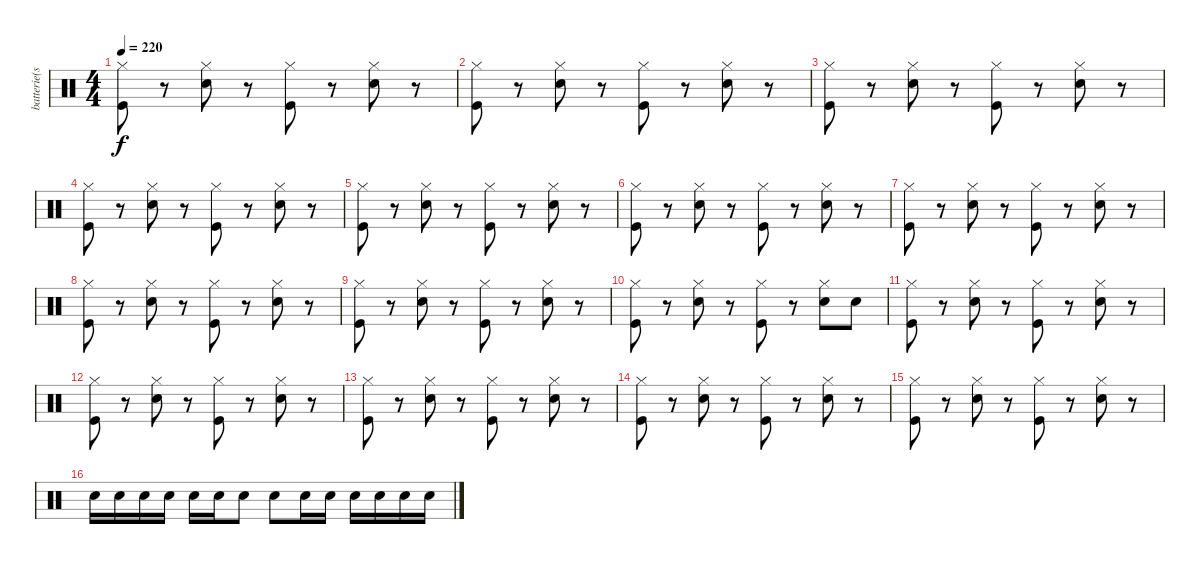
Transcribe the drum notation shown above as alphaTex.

\track ("batterie(scott)" "batterie(s") {instrument percussion}
\staff {score}
\articulation defaults
\ts (4 4)
\tempo 220
\clef neutral
\ks c
("Hi-Hat (closed)" "Kick (hit)").8{dy f} r.8 ("Hi-Hat (closed)" "Snare (hit) 2").8 r.8 ("Hi-Hat (closed)" "Kick (hit)").8 r.8 ("Hi-Hat (closed)" "Snare (hit) 2").8 r.8 |
("Hi-Hat (closed)" "Kick (hit)").8 r.8 ("Hi-Hat (closed)" "Snare (hit) 2").8 r.8 ("Hi-Hat (closed)" "Kick (hit)").8 r.8 ("Hi-Hat (closed)" "Snare (hit) 2").8 r.8 |
("Hi-Hat (closed)" "Kick (hit)").8 r.8 ("Hi-Hat (closed)" "Snare (hit) 2").8 r.8 ("Hi-Hat (closed)" "Kick (hit)").8 r.8 ("Hi-Hat (closed)" "Snare (hit) 2").8 r.8 |
("Hi-Hat (closed)" "Kick (hit)").8 r.8 ("Hi-Hat (closed)" "Snare (hit) 2").8 r.8 ("Hi-Hat (closed)" "Kick (hit)").8 r.8 ("Hi-Hat (closed)" "Snare (hit) 2").8 r.8 |
("Hi-Hat (closed)" "Kick (hit)").8 r.8 ("Hi-Hat (closed)" "Snare (hit) 2").8 r.8 ("Hi-Hat (closed)" "Kick (hit)").8 r.8 ("Hi-Hat (closed)" "Snare (hit) 2").8 r.8 |
("Hi-Hat (closed)" "Kick (hit)").8 r.8 ("Hi-Hat (closed)" "Snare (hit) 2").8 r.8 ("Hi-Hat (closed)" "Kick (hit)").8 r.8 ("Hi-Hat (closed)" "Snare (hit) 2").8 r.8 |
("Hi-Hat (closed)" "Kick (hit)").8 r.8 ("Hi-Hat (closed)" "Snare (hit) 2").8 r.8 ("Hi-Hat (closed)" "Kick (hit)").8 r.8 ("Hi-Hat (closed)" "Snare (hit) 2").8 r.8 |
("Hi-Hat (closed)" "Kick (hit)").8 r.8 ("Hi-Hat (closed)" "Snare (hit) 2").8 r.8 ("Hi-Hat (closed)" "Kick (hit)").8 r.8 ("Hi-Hat (closed)" "Snare (hit) 2").8 r.8 |
("Hi-Hat (closed)" "Kick (hit)").8 r.8 ("Hi-Hat (closed)" "Snare (hit) 2").8 r.8 ("Hi-Hat (closed)" "Kick (hit)").8 r.8 ("Hi-Hat (closed)" "Snare (hit) 2").8 r.8 |
("Hi-Hat (closed)" "Kick (hit)").8 r.8 ("Hi-Hat (closed)" "Snare (hit) 2").8 r.8 ("Hi-Hat (closed)" "Kick (hit)").8 r.8 ("Hi-Hat (closed)" "Snare (hit) 2").8 "Snare (hit) 2".8 |
("Hi-Hat (closed)" "Kick (hit)").8 r.8 ("Hi-Hat (closed)" "Snare (hit) 2").8 r.8 ("Hi-Hat (closed)" "Kick (hit)").8 r.8 ("Hi-Hat (closed)" "Snare (hit) 2").8 r.8 |
("Hi-Hat (closed)" "Kick (hit)").8 r.8 ("Hi-Hat (closed)" "Snare (hit) 2").8 r.8 ("Hi-Hat (closed)" "Kick (hit)").8 r.8 ("Hi-Hat (closed)" "Snare (hit) 2").8 r.8 |
("Hi-Hat (closed)" "Kick (hit)").8 r.8 ("Hi-Hat (closed)" "Snare (hit) 2").8 r.8 ("Hi-Hat (closed)" "Kick (hit)").8 r.8 ("Hi-Hat (closed)" "Snare (hit) 2").8 r.8 |
("Hi-Hat (closed)" "Kick (hit)").8 r.8 ("Hi-Hat (closed)" "Snare (hit) 2").8 r.8 ("Hi-Hat (closed)" "Kick (hit)").8 r.8 ("Hi-Hat (closed)" "Snare (hit) 2").8 r.8 |
("Hi-Hat (closed)" "Kick (hit)").8 r.8 ("Hi-Hat (closed)" "Snare (hit) 2").8 r.8 ("Hi-Hat (closed)" "Kick (hit)").8 r.8 ("Hi-Hat (closed)" "Snare (hit) 2").8 r.8 |
"Snare (hit) 2".16 "Snare (hit) 2".16 "Snare (hit) 2".16 "Snare (hit) 2".16 "Snare (hit) 2".16 "Snare (hit) 2".16 "Snare (hit) 2".8 "Snare (hit) 2".8 "Snare (hit) 2".16 "Snare (hit) 2".16 "Snare (hit) 2".16 "Snare (hit) 2".16 "Snare (hit) 2".16 "Snare (hit) 2".16
